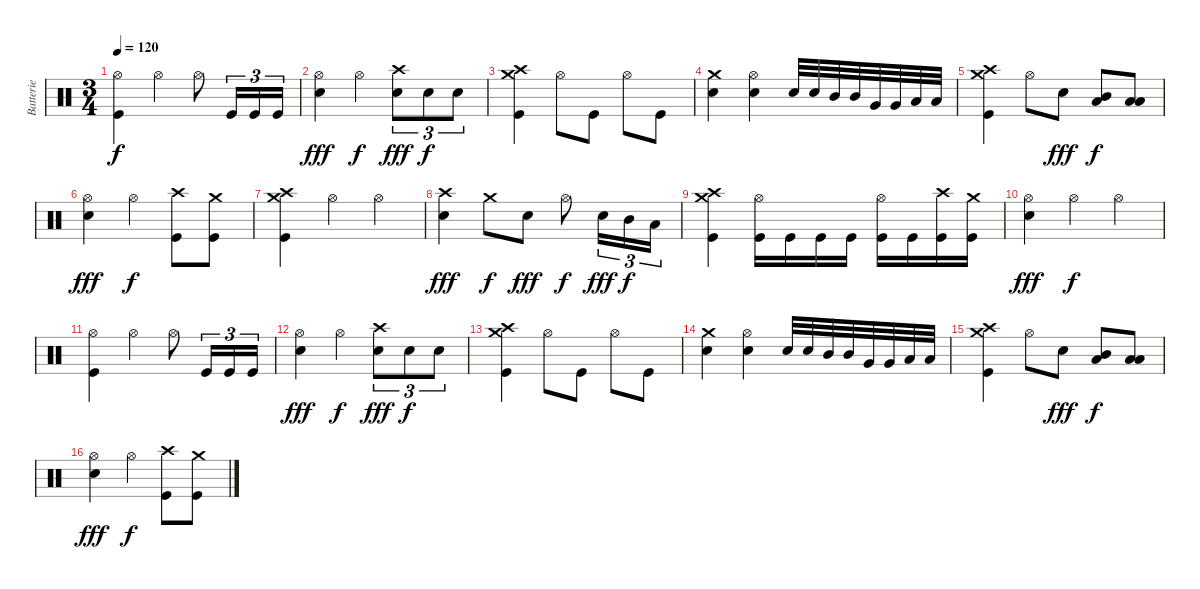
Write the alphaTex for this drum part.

\track ("Batterie" "Batterie") {instrument percussion}
\staff {score}
\articulation defaults
\ts (3 4)
\tempo 120
\clef neutral
\ks c
("Hi-Hat (open)" "Kick (hit)").4{dy f} "Hi-Hat (open)".4 "Hi-Hat (open)".8 "Kick (hit)".16{tu (3 2)} "Kick (hit)".16{tu (3 2)} "Kick (hit)".16{tu (3 2)} |
("Hi-Hat (open)" "Electric Snare (hit)").4{dy fff} "Hi-Hat (open)".4{dy f} ("Crash high (hit)" "Electric Snare (hit)").8{tu (3 2) dy fff} "Electric Snare (hit)".8{tu (3 2) dy f} "Electric Snare (hit)".8{tu (3 2)} |
("Crash medium (hit)" "Crash high (hit)" "Kick (hit)").4 "Hi-Hat (open)".8 "Kick (hit)".8 "Hi-Hat (open)".8 "Kick (hit)".8 |
("Crash medium (hit)" "Electric Snare (hit)").4 ("Hi-Hat (open)" "Electric Snare (hit)").4 "Electric Snare (hit)".32 "Electric Snare (hit)".32 "Mid Tom (hit)".32 "Mid Tom (hit)".32 "Very Low Tom (hit)".32 "Very Low Tom (hit)".32 "Low Floor Tom (hit)".32 "Low Floor Tom (hit)".32 |
("Crash medium (hit)" "Crash high (hit)" "Kick (hit)").4{volume 13} "Hi-Hat (open)".8 "Electric Snare (hit)".8{dy fff} ("Mid Tom (hit)" "Low Tom (hit)").8{dy f} ("Low Tom (hit)" "Low Floor Tom (hit)").8 |
("Hi-Hat (open)" "Electric Snare (hit)").4{dy fff} "Hi-Hat (open)".4{dy f} ("Crash high (hit)" "Kick (hit)").8 ("Crash medium (hit)" "Kick (hit)").8 |
("Crash medium (hit)" "Crash high (hit)" "Kick (hit)").4 "Hi-Hat (open)".4 "Hi-Hat (open)".4 |
("Crash high (hit)" "Electric Snare (hit)").4{dy fff} "Crash medium (hit)".8{dy f} "Electric Snare (hit)".8{dy fff} "Hi-Hat (open)".8{dy f} "Electric Snare (hit)".16{tu (3 2) dy fff} "Mid Tom (hit)".16{tu (3 2) dy f} "Low Floor Tom (hit)".16{tu (3 2)} |
("Crash medium (hit)" "Crash high (hit)" "Kick (hit)").4 ("Hi-Hat (open)" "Kick (hit)").16 "Kick (hit)".16 "Kick (hit)".16 "Kick (hit)".16 ("Hi-Hat (open)" "Kick (hit)").16 "Kick (hit)".16 ("Crash high (hit)" "Kick (hit)").16 ("Crash medium (hit)" "Kick (hit)").16 |
("Hi-Hat (open)" "Electric Snare (hit)").4{dy fff} "Hi-Hat (open)".4{dy f} "Hi-Hat (open)".4 |
("Hi-Hat (open)" "Kick (hit)").4 "Hi-Hat (open)".4 "Hi-Hat (open)".8 "Kick (hit)".16{tu (3 2)} "Kick (hit)".16{tu (3 2)} "Kick (hit)".16{tu (3 2)} |
("Hi-Hat (open)" "Electric Snare (hit)").4{dy fff} "Hi-Hat (open)".4{dy f} ("Crash high (hit)" "Electric Snare (hit)").8{tu (3 2) dy fff} "Electric Snare (hit)".8{tu (3 2) dy f} "Electric Snare (hit)".8{tu (3 2)} |
("Crash medium (hit)" "Crash high (hit)" "Kick (hit)").4 "Hi-Hat (open)".8 "Kick (hit)".8 "Hi-Hat (open)".8 "Kick (hit)".8 |
("Crash medium (hit)" "Electric Snare (hit)").4 ("Hi-Hat (open)" "Electric Snare (hit)").4 "Electric Snare (hit)".32 "Electric Snare (hit)".32 "Mid Tom (hit)".32 "Mid Tom (hit)".32 "Very Low Tom (hit)".32 "Very Low Tom (hit)".32 "Low Floor Tom (hit)".32 "Low Floor Tom (hit)".32 |
("Crash medium (hit)" "Crash high (hit)" "Kick (hit)").4 "Hi-Hat (open)".8 "Electric Snare (hit)".8{dy fff} ("Mid Tom (hit)" "Low Tom (hit)").8{dy f} ("Low Tom (hit)" "Low Floor Tom (hit)").8 |
("Hi-Hat (open)" "Electric Snare (hit)").4{dy fff} "Hi-Hat (open)".4{dy f} ("Crash high (hit)" "Kick (hit)").8 ("Crash medium (hit)" "Kick (hit)").8
